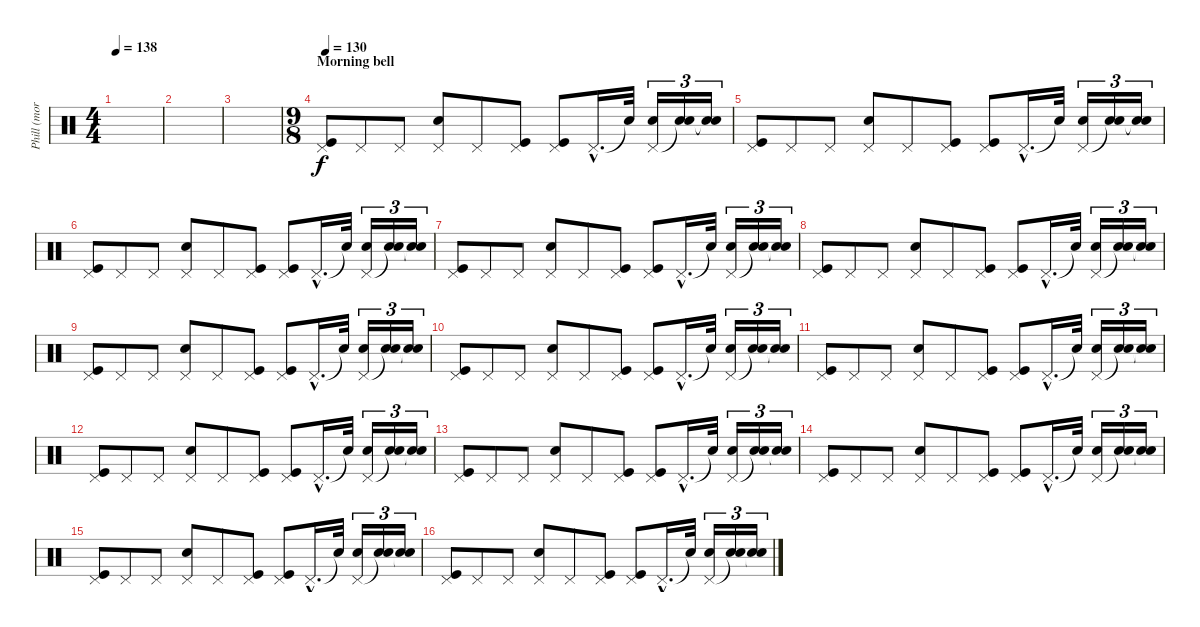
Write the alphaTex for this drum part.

\track ("Phill (mornig bell)" "Phill (mor") {instrument percussion}
\staff {score}
\articulation defaults
\ts (4 4)
\tempo 138
\clef neutral
\ks c
|
|
|
\ts (9 8)
\section ("" "Morning bell")
\tempo 130
("Pedal Hi-Hat (hit)" "Kick (hit)").8 "Pedal Hi-Hat (hit)".8 "Pedal Hi-Hat (hit)".8 ("Pedal Hi-Hat (hit)" "Snare (hit) 2").8 "Pedal Hi-Hat (hit)".8 ("Pedal Hi-Hat (hit)" "Kick (hit)").8 ("Pedal Hi-Hat (hit)" "Kick (hit)").8 "Pedal Hi-Hat (hit)"{hac}.16{d} "Snare (hit)"{t}.32 ("Pedal Hi-Hat (hit)" "Snare (hit) 2").16{tu (3 2)} ("Snare (hit)"{t} "Snare (hit) 2").16{tu (3 2)} ("Snare (hit)"{t} "Snare (hit) 2").16{tu (3 2)} |
("Pedal Hi-Hat (hit)" "Kick (hit)").8 "Pedal Hi-Hat (hit)".8 "Pedal Hi-Hat (hit)".8 ("Pedal Hi-Hat (hit)" "Snare (hit) 2").8 "Pedal Hi-Hat (hit)".8 ("Pedal Hi-Hat (hit)" "Kick (hit)").8 ("Pedal Hi-Hat (hit)" "Kick (hit)").8 "Pedal Hi-Hat (hit)"{hac}.16{d} "Snare (hit)"{t}.32 ("Pedal Hi-Hat (hit)" "Snare (hit) 2").16{tu (3 2)} ("Snare (hit)"{t} "Snare (hit) 2").16{tu (3 2)} ("Snare (hit)"{t} "Snare (hit) 2").16{tu (3 2)} |
("Pedal Hi-Hat (hit)" "Kick (hit)").8 "Pedal Hi-Hat (hit)".8 "Pedal Hi-Hat (hit)".8 ("Pedal Hi-Hat (hit)" "Snare (hit) 2").8 "Pedal Hi-Hat (hit)".8 ("Pedal Hi-Hat (hit)" "Kick (hit)").8 ("Pedal Hi-Hat (hit)" "Kick (hit)").8 "Pedal Hi-Hat (hit)"{hac}.16{d} "Snare (hit)"{t}.32 ("Pedal Hi-Hat (hit)" "Snare (hit) 2").16{tu (3 2)} ("Snare (hit)"{t} "Snare (hit) 2").16{tu (3 2)} ("Snare (hit)"{t} "Snare (hit) 2").16{tu (3 2)} |
("Pedal Hi-Hat (hit)" "Kick (hit)").8 "Pedal Hi-Hat (hit)".8 "Pedal Hi-Hat (hit)".8 ("Pedal Hi-Hat (hit)" "Snare (hit) 2").8 "Pedal Hi-Hat (hit)".8 ("Pedal Hi-Hat (hit)" "Kick (hit)").8 ("Pedal Hi-Hat (hit)" "Kick (hit)").8 "Pedal Hi-Hat (hit)"{hac}.16{d} "Snare (hit)"{t}.32 ("Pedal Hi-Hat (hit)" "Snare (hit) 2").16{tu (3 2)} ("Snare (hit)"{t} "Snare (hit) 2").16{tu (3 2)} ("Snare (hit)"{t} "Snare (hit) 2").16{tu (3 2)} |
("Pedal Hi-Hat (hit)" "Kick (hit)").8 "Pedal Hi-Hat (hit)".8 "Pedal Hi-Hat (hit)".8 ("Pedal Hi-Hat (hit)" "Snare (hit) 2").8 "Pedal Hi-Hat (hit)".8 ("Pedal Hi-Hat (hit)" "Kick (hit)").8 ("Pedal Hi-Hat (hit)" "Kick (hit)").8 "Pedal Hi-Hat (hit)"{hac}.16{d} "Snare (hit)"{t}.32 ("Pedal Hi-Hat (hit)" "Snare (hit) 2").16{tu (3 2)} ("Snare (hit)"{t} "Snare (hit) 2").16{tu (3 2)} ("Snare (hit)"{t} "Snare (hit) 2").16{tu (3 2)} |
("Pedal Hi-Hat (hit)" "Kick (hit)").8 "Pedal Hi-Hat (hit)".8 "Pedal Hi-Hat (hit)".8 ("Pedal Hi-Hat (hit)" "Snare (hit) 2").8 "Pedal Hi-Hat (hit)".8 ("Pedal Hi-Hat (hit)" "Kick (hit)").8 ("Pedal Hi-Hat (hit)" "Kick (hit)").8 "Pedal Hi-Hat (hit)"{hac}.16{d} "Snare (hit)"{t}.32 ("Pedal Hi-Hat (hit)" "Snare (hit) 2").16{tu (3 2)} ("Snare (hit)"{t} "Snare (hit) 2").16{tu (3 2)} ("Snare (hit)"{t} "Snare (hit) 2").16{tu (3 2)} |
("Pedal Hi-Hat (hit)" "Kick (hit)").8 "Pedal Hi-Hat (hit)".8 "Pedal Hi-Hat (hit)".8 ("Pedal Hi-Hat (hit)" "Snare (hit) 2").8 "Pedal Hi-Hat (hit)".8 ("Pedal Hi-Hat (hit)" "Kick (hit)").8 ("Pedal Hi-Hat (hit)" "Kick (hit)").8 "Pedal Hi-Hat (hit)"{hac}.16{d} "Snare (hit)"{t}.32 ("Pedal Hi-Hat (hit)" "Snare (hit) 2").16{tu (3 2)} ("Snare (hit)"{t} "Snare (hit) 2").16{tu (3 2)} ("Snare (hit)"{t} "Snare (hit) 2").16{tu (3 2)} |
("Pedal Hi-Hat (hit)" "Kick (hit)").8 "Pedal Hi-Hat (hit)".8 "Pedal Hi-Hat (hit)".8 ("Pedal Hi-Hat (hit)" "Snare (hit) 2").8 "Pedal Hi-Hat (hit)".8 ("Pedal Hi-Hat (hit)" "Kick (hit)").8 ("Pedal Hi-Hat (hit)" "Kick (hit)").8 "Pedal Hi-Hat (hit)"{hac}.16{d} "Snare (hit)"{t}.32 ("Pedal Hi-Hat (hit)" "Snare (hit) 2").16{tu (3 2)} ("Snare (hit)"{t} "Snare (hit) 2").16{tu (3 2)} ("Snare (hit)"{t} "Snare (hit) 2").16{tu (3 2)} |
("Pedal Hi-Hat (hit)" "Kick (hit)").8 "Pedal Hi-Hat (hit)".8 "Pedal Hi-Hat (hit)".8 ("Pedal Hi-Hat (hit)" "Snare (hit) 2").8 "Pedal Hi-Hat (hit)".8 ("Pedal Hi-Hat (hit)" "Kick (hit)").8 ("Pedal Hi-Hat (hit)" "Kick (hit)").8 "Pedal Hi-Hat (hit)"{hac}.16{d} "Snare (hit)"{t}.32 ("Pedal Hi-Hat (hit)" "Snare (hit) 2").16{tu (3 2)} ("Snare (hit)"{t} "Snare (hit) 2").16{tu (3 2)} ("Snare (hit)"{t} "Snare (hit) 2").16{tu (3 2)} |
("Pedal Hi-Hat (hit)" "Kick (hit)").8 "Pedal Hi-Hat (hit)".8 "Pedal Hi-Hat (hit)".8 ("Pedal Hi-Hat (hit)" "Snare (hit) 2").8 "Pedal Hi-Hat (hit)".8 ("Pedal Hi-Hat (hit)" "Kick (hit)").8 ("Pedal Hi-Hat (hit)" "Kick (hit)").8 "Pedal Hi-Hat (hit)"{hac}.16{d} "Snare (hit)"{t}.32 ("Pedal Hi-Hat (hit)" "Snare (hit) 2").16{tu (3 2)} ("Snare (hit)"{t} "Snare (hit) 2").16{tu (3 2)} ("Snare (hit)"{t} "Snare (hit) 2").16{tu (3 2)} |
("Pedal Hi-Hat (hit)" "Kick (hit)").8 "Pedal Hi-Hat (hit)".8 "Pedal Hi-Hat (hit)".8 ("Pedal Hi-Hat (hit)" "Snare (hit) 2").8 "Pedal Hi-Hat (hit)".8 ("Pedal Hi-Hat (hit)" "Kick (hit)").8 ("Pedal Hi-Hat (hit)" "Kick (hit)").8 "Pedal Hi-Hat (hit)"{hac}.16{d} "Snare (hit)"{t}.32 ("Pedal Hi-Hat (hit)" "Snare (hit) 2").16{tu (3 2)} ("Snare (hit)"{t} "Snare (hit) 2").16{tu (3 2)} ("Snare (hit)"{t} "Snare (hit) 2").16{tu (3 2)} |
("Pedal Hi-Hat (hit)" "Kick (hit)").8 "Pedal Hi-Hat (hit)".8 "Pedal Hi-Hat (hit)".8 ("Pedal Hi-Hat (hit)" "Snare (hit) 2").8 "Pedal Hi-Hat (hit)".8 ("Pedal Hi-Hat (hit)" "Kick (hit)").8 ("Pedal Hi-Hat (hit)" "Kick (hit)").8 "Pedal Hi-Hat (hit)"{hac}.16{d} "Snare (hit)"{t}.32 ("Pedal Hi-Hat (hit)" "Snare (hit) 2").16{tu (3 2)} ("Snare (hit)"{t} "Snare (hit) 2").16{tu (3 2)} ("Snare (hit)"{t} "Snare (hit) 2").16{tu (3 2)} |
("Pedal Hi-Hat (hit)" "Kick (hit)").8 "Pedal Hi-Hat (hit)".8 "Pedal Hi-Hat (hit)".8 ("Pedal Hi-Hat (hit)" "Snare (hit) 2").8 "Pedal Hi-Hat (hit)".8 ("Pedal Hi-Hat (hit)" "Kick (hit)").8 ("Pedal Hi-Hat (hit)" "Kick (hit)").8 "Pedal Hi-Hat (hit)"{hac}.16{d} "Snare (hit)"{t}.32 ("Pedal Hi-Hat (hit)" "Snare (hit) 2").16{tu (3 2)} ("Snare (hit)"{t} "Snare (hit) 2").16{tu (3 2)} ("Snare (hit)"{t} "Snare (hit) 2").16{tu (3 2)}
